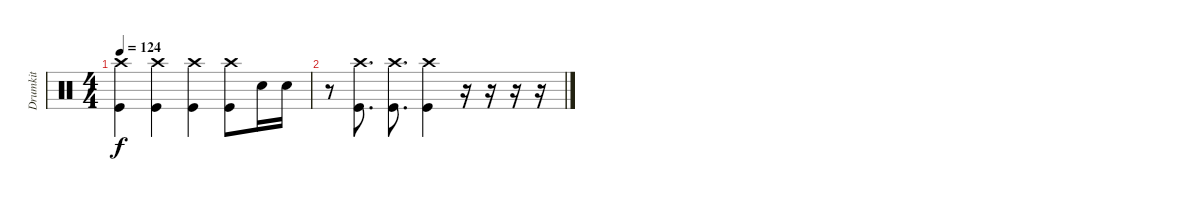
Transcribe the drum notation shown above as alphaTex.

\track ("Drumkit" "Drumkit") {instrument percussion}
\staff {score}
\articulation defaults
\ts (4 4)
\tempo 124
\clef neutral
\ks c
("Crash high (hit)" "Kick (hit)").4{dy f} ("Crash high (hit)" "Kick (hit)").4 ("Crash high (hit)" "Kick (hit)").4 ("Crash high (hit)" "Kick (hit)").8 "Snare (hit) 2".16 "Snare (hit) 2".16 |
r.8 ("Crash high (hit)" "Kick (hit)").8{d} ("Crash high (hit)" "Kick (hit)").8{d} ("Crash high (hit)" "Kick (hit)").4 r.16 r.16 r.16 r.16
